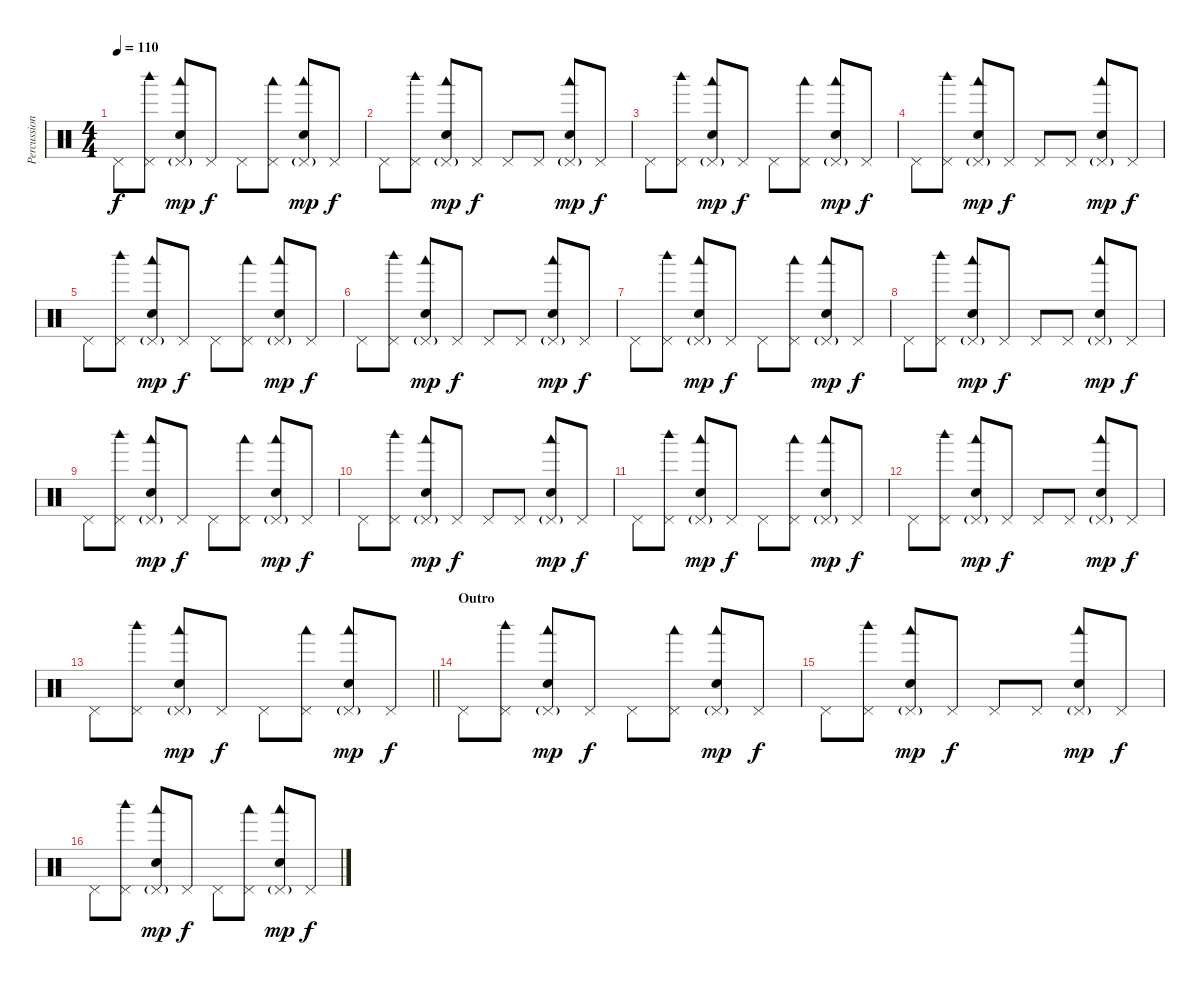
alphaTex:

\track ("Percussion" "Percussion") {instrument percussion}
\staff {score}
\articulation defaults
\ts (4 4)
\tempo 110
\clef neutral
\ks c "Pedal Hi-Hat (hit)".8{dy f}
("Woodblock high (hit)" "Pedal Hi-Hat (hit)").8 ("Woodblock low (hit)" "Pedal Hi-Hat (hit)"{g} "Electric Snare (hit)").8{dy mp} "Pedal Hi-Hat (hit)".8{dy f} "Pedal Hi-Hat (hit)".8 ("Woodblock low (hit)" "Pedal Hi-Hat (hit)").8 ("Woodblock low (hit)" "Pedal Hi-Hat (hit)"{g} "Electric Snare (hit)").8{dy mp} "Pedal Hi-Hat (hit)".8{dy f} |
"Pedal Hi-Hat (hit)".8 ("Woodblock high (hit)" "Pedal Hi-Hat (hit)").8 ("Woodblock low (hit)" "Pedal Hi-Hat (hit)"{g} "Electric Snare (hit)").8{dy mp} "Pedal Hi-Hat (hit)".8{dy f} "Pedal Hi-Hat (hit)".8 "Pedal Hi-Hat (hit)".8 ("Woodblock low (hit)" "Pedal Hi-Hat (hit)"{g} "Electric Snare (hit)").8{dy mp} "Pedal Hi-Hat (hit)".8{dy f} |
"Pedal Hi-Hat (hit)".8 ("Woodblock high (hit)" "Pedal Hi-Hat (hit)").8 ("Woodblock low (hit)" "Pedal Hi-Hat (hit)"{g} "Electric Snare (hit)").8{dy mp} "Pedal Hi-Hat (hit)".8{dy f} "Pedal Hi-Hat (hit)".8 ("Woodblock low (hit)" "Pedal Hi-Hat (hit)").8 ("Woodblock low (hit)" "Pedal Hi-Hat (hit)"{g} "Electric Snare (hit)").8{dy mp} "Pedal Hi-Hat (hit)".8{dy f} |
"Pedal Hi-Hat (hit)".8 ("Woodblock high (hit)" "Pedal Hi-Hat (hit)").8 ("Woodblock low (hit)" "Pedal Hi-Hat (hit)"{g} "Electric Snare (hit)").8{dy mp} "Pedal Hi-Hat (hit)".8{dy f} "Pedal Hi-Hat (hit)".8 "Pedal Hi-Hat (hit)".8 ("Woodblock low (hit)" "Pedal Hi-Hat (hit)"{g} "Electric Snare (hit)").8{dy mp} "Pedal Hi-Hat (hit)".8{dy f} |
"Pedal Hi-Hat (hit)".8 ("Woodblock high (hit)" "Pedal Hi-Hat (hit)").8 ("Woodblock low (hit)" "Pedal Hi-Hat (hit)"{g} "Electric Snare (hit)").8{dy mp} "Pedal Hi-Hat (hit)".8{dy f} "Pedal Hi-Hat (hit)".8 ("Woodblock low (hit)" "Pedal Hi-Hat (hit)").8 ("Woodblock low (hit)" "Pedal Hi-Hat (hit)"{g} "Electric Snare (hit)").8{dy mp} "Pedal Hi-Hat (hit)".8{dy f} |
"Pedal Hi-Hat (hit)".8 ("Woodblock high (hit)" "Pedal Hi-Hat (hit)").8 ("Woodblock low (hit)" "Pedal Hi-Hat (hit)"{g} "Electric Snare (hit)").8{dy mp} "Pedal Hi-Hat (hit)".8{dy f} "Pedal Hi-Hat (hit)".8 "Pedal Hi-Hat (hit)".8 ("Woodblock low (hit)" "Pedal Hi-Hat (hit)"{g} "Electric Snare (hit)").8{dy mp} "Pedal Hi-Hat (hit)".8{dy f} |
"Pedal Hi-Hat (hit)".8 ("Woodblock high (hit)" "Pedal Hi-Hat (hit)").8 ("Woodblock low (hit)" "Pedal Hi-Hat (hit)"{g} "Electric Snare (hit)").8{dy mp} "Pedal Hi-Hat (hit)".8{dy f} "Pedal Hi-Hat (hit)".8 ("Woodblock low (hit)" "Pedal Hi-Hat (hit)").8 ("Woodblock low (hit)" "Pedal Hi-Hat (hit)"{g} "Electric Snare (hit)").8{dy mp} "Pedal Hi-Hat (hit)".8{dy f} |
"Pedal Hi-Hat (hit)".8 ("Woodblock high (hit)" "Pedal Hi-Hat (hit)").8 ("Woodblock low (hit)" "Pedal Hi-Hat (hit)"{g} "Electric Snare (hit)").8{dy mp} "Pedal Hi-Hat (hit)".8{dy f} "Pedal Hi-Hat (hit)".8 "Pedal Hi-Hat (hit)".8 ("Woodblock low (hit)" "Pedal Hi-Hat (hit)"{g} "Electric Snare (hit)").8{dy mp} "Pedal Hi-Hat (hit)".8{dy f} |
"Pedal Hi-Hat (hit)".8 ("Woodblock high (hit)" "Pedal Hi-Hat (hit)").8 ("Woodblock low (hit)" "Pedal Hi-Hat (hit)"{g} "Electric Snare (hit)").8{dy mp} "Pedal Hi-Hat (hit)".8{dy f} "Pedal Hi-Hat (hit)".8 ("Woodblock low (hit)" "Pedal Hi-Hat (hit)").8 ("Woodblock low (hit)" "Pedal Hi-Hat (hit)"{g} "Electric Snare (hit)").8{dy mp} "Pedal Hi-Hat (hit)".8{dy f} |
"Pedal Hi-Hat (hit)".8 ("Woodblock high (hit)" "Pedal Hi-Hat (hit)").8 ("Woodblock low (hit)" "Pedal Hi-Hat (hit)"{g} "Electric Snare (hit)").8{dy mp} "Pedal Hi-Hat (hit)".8{dy f} "Pedal Hi-Hat (hit)".8 "Pedal Hi-Hat (hit)".8 ("Woodblock low (hit)" "Pedal Hi-Hat (hit)"{g} "Electric Snare (hit)").8{dy mp} "Pedal Hi-Hat (hit)".8{dy f} |
"Pedal Hi-Hat (hit)".8 ("Woodblock high (hit)" "Pedal Hi-Hat (hit)").8 ("Woodblock low (hit)" "Pedal Hi-Hat (hit)"{g} "Electric Snare (hit)").8{dy mp} "Pedal Hi-Hat (hit)".8{dy f} "Pedal Hi-Hat (hit)".8 ("Woodblock low (hit)" "Pedal Hi-Hat (hit)").8 ("Woodblock low (hit)" "Pedal Hi-Hat (hit)"{g} "Electric Snare (hit)").8{dy mp} "Pedal Hi-Hat (hit)".8{dy f} |
"Pedal Hi-Hat (hit)".8 ("Woodblock high (hit)" "Pedal Hi-Hat (hit)").8 ("Woodblock low (hit)" "Pedal Hi-Hat (hit)"{g} "Electric Snare (hit)").8{dy mp} "Pedal Hi-Hat (hit)".8{dy f} "Pedal Hi-Hat (hit)".8 "Pedal Hi-Hat (hit)".8 ("Woodblock low (hit)" "Pedal Hi-Hat (hit)"{g} "Electric Snare (hit)").8{dy mp} "Pedal Hi-Hat (hit)".8{dy f} |
\barLineRight lightlight "Pedal Hi-Hat (hit)".8
("Woodblock high (hit)" "Pedal Hi-Hat (hit)").8 ("Woodblock low (hit)" "Pedal Hi-Hat (hit)"{g} "Electric Snare (hit)").8{dy mp} "Pedal Hi-Hat (hit)".8{dy f} "Pedal Hi-Hat (hit)".8 ("Woodblock low (hit)" "Pedal Hi-Hat (hit)").8 ("Woodblock low (hit)" "Pedal Hi-Hat (hit)"{g} "Electric Snare (hit)").8{dy mp} "Pedal Hi-Hat (hit)".8{dy f} |
\section ("" "Outro")
"Pedal Hi-Hat (hit)".8 ("Woodblock high (hit)" "Pedal Hi-Hat (hit)").8 ("Woodblock low (hit)" "Pedal Hi-Hat (hit)"{g} "Electric Snare (hit)").8{dy mp} "Pedal Hi-Hat (hit)".8{dy f} "Pedal Hi-Hat (hit)".8 ("Woodblock low (hit)" "Pedal Hi-Hat (hit)").8 ("Woodblock low (hit)" "Pedal Hi-Hat (hit)"{g} "Electric Snare (hit)").8{dy mp} "Pedal Hi-Hat (hit)".8{dy f} |
"Pedal Hi-Hat (hit)".8 ("Woodblock high (hit)" "Pedal Hi-Hat (hit)").8 ("Woodblock low (hit)" "Pedal Hi-Hat (hit)"{g} "Electric Snare (hit)").8{dy mp} "Pedal Hi-Hat (hit)".8{dy f} "Pedal Hi-Hat (hit)".8 "Pedal Hi-Hat (hit)".8 ("Woodblock low (hit)" "Pedal Hi-Hat (hit)"{g} "Electric Snare (hit)").8{dy mp} "Pedal Hi-Hat (hit)".8{dy f} |
"Pedal Hi-Hat (hit)".8 ("Woodblock high (hit)" "Pedal Hi-Hat (hit)").8 ("Woodblock low (hit)" "Pedal Hi-Hat (hit)"{g} "Electric Snare (hit)").8{dy mp} "Pedal Hi-Hat (hit)".8{dy f} "Pedal Hi-Hat (hit)".8 ("Woodblock low (hit)" "Pedal Hi-Hat (hit)").8 ("Woodblock low (hit)" "Pedal Hi-Hat (hit)"{g} "Electric Snare (hit)").8{dy mp} "Pedal Hi-Hat (hit)".8{dy f}
